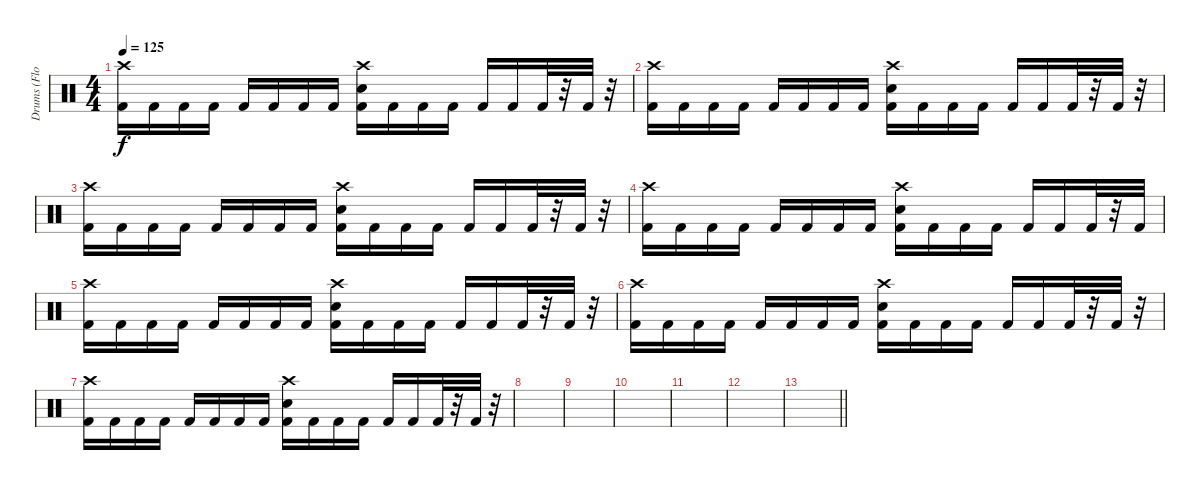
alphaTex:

\track ("Drums (Floboter)" "Drums (Flo") {instrument percussion}
\staff {score}
\articulation defaults
\ts (4 4)
\tempo 125
\clef neutral
\ks c
("Crash high (hit)" "Kick (hit) 2").16{dy f} "Kick (hit) 2".16 "Kick (hit) 2".16 "Kick (hit) 2".16 "Kick (hit) 2".16 "Kick (hit) 2".16 "Kick (hit) 2".16 "Kick (hit) 2".16 ("Crash high (hit)" "Snare (hit) 2" "Kick (hit) 2").16 "Kick (hit) 2".16 "Kick (hit) 2".16 "Kick (hit) 2".16 "Kick (hit) 2".16 "Kick (hit) 2".16 "Kick (hit) 2".32 r.32 "Kick (hit) 2".32 r.32 |
("Crash high (hit)" "Kick (hit) 2").16 "Kick (hit) 2".16 "Kick (hit) 2".16 "Kick (hit) 2".16 "Kick (hit) 2".16 "Kick (hit) 2".16 "Kick (hit) 2".16 "Kick (hit) 2".16 ("Crash high (hit)" "Snare (hit) 2" "Kick (hit) 2").16 "Kick (hit) 2".16 "Kick (hit) 2".16 "Kick (hit) 2".16 "Kick (hit) 2".16 "Kick (hit) 2".16 "Kick (hit) 2".32 r.32 "Kick (hit) 2".32 r.32 |
("Crash high (hit)" "Kick (hit) 2").16 "Kick (hit) 2".16 "Kick (hit) 2".16 "Kick (hit) 2".16 "Kick (hit) 2".16 "Kick (hit) 2".16 "Kick (hit) 2".16 "Kick (hit) 2".16 ("Crash high (hit)" "Snare (hit) 2" "Kick (hit) 2").16 "Kick (hit) 2".16 "Kick (hit) 2".16 "Kick (hit) 2".16 "Kick (hit) 2".16 "Kick (hit) 2".16 "Kick (hit) 2".32 r.32 "Kick (hit) 2".32 r.32 |
("Crash high (hit)" "Kick (hit) 2").16 "Kick (hit) 2".16 "Kick (hit) 2".16 "Kick (hit) 2".16 "Kick (hit) 2".16 "Kick (hit) 2".16 "Kick (hit) 2".16 "Kick (hit) 2".16 ("Crash high (hit)" "Snare (hit) 2" "Kick (hit) 2").16 "Kick (hit) 2".16 "Kick (hit) 2".16 "Kick (hit) 2".16 "Kick (hit) 2".16 "Kick (hit) 2".16 "Kick (hit) 2".32 r.32 "Kick (hit) 2".32 |
("Crash high (hit)" "Kick (hit) 2").16 "Kick (hit) 2".16 "Kick (hit) 2".16 "Kick (hit) 2".16 "Kick (hit) 2".16 "Kick (hit) 2".16 "Kick (hit) 2".16 "Kick (hit) 2".16 ("Crash high (hit)" "Snare (hit) 2" "Kick (hit) 2").16 "Kick (hit) 2".16 "Kick (hit) 2".16 "Kick (hit) 2".16 "Kick (hit) 2".16 "Kick (hit) 2".16 "Kick (hit) 2".32 r.32 "Kick (hit) 2".32 r.32 |
("Crash high (hit)" "Kick (hit) 2").16 "Kick (hit) 2".16 "Kick (hit) 2".16 "Kick (hit) 2".16 "Kick (hit) 2".16 "Kick (hit) 2".16 "Kick (hit) 2".16 "Kick (hit) 2".16 ("Crash high (hit)" "Snare (hit) 2" "Kick (hit) 2").16 "Kick (hit) 2".16 "Kick (hit) 2".16 "Kick (hit) 2".16 "Kick (hit) 2".16 "Kick (hit) 2".16 "Kick (hit) 2".32 r.32 "Kick (hit) 2".32 r.32 |
("Crash high (hit)" "Kick (hit) 2").16 "Kick (hit) 2".16 "Kick (hit) 2".16 "Kick (hit) 2".16 "Kick (hit) 2".16 "Kick (hit) 2".16 "Kick (hit) 2".16 "Kick (hit) 2".16 ("Crash high (hit)" "Snare (hit) 2" "Kick (hit) 2").16 "Kick (hit) 2".16 "Kick (hit) 2".16 "Kick (hit) 2".16 "Kick (hit) 2".16 "Kick (hit) 2".16 "Kick (hit) 2".32 r.32 "Kick (hit) 2".32 r.32 |
|
|
|
|
|
\barLineRight lightlight
